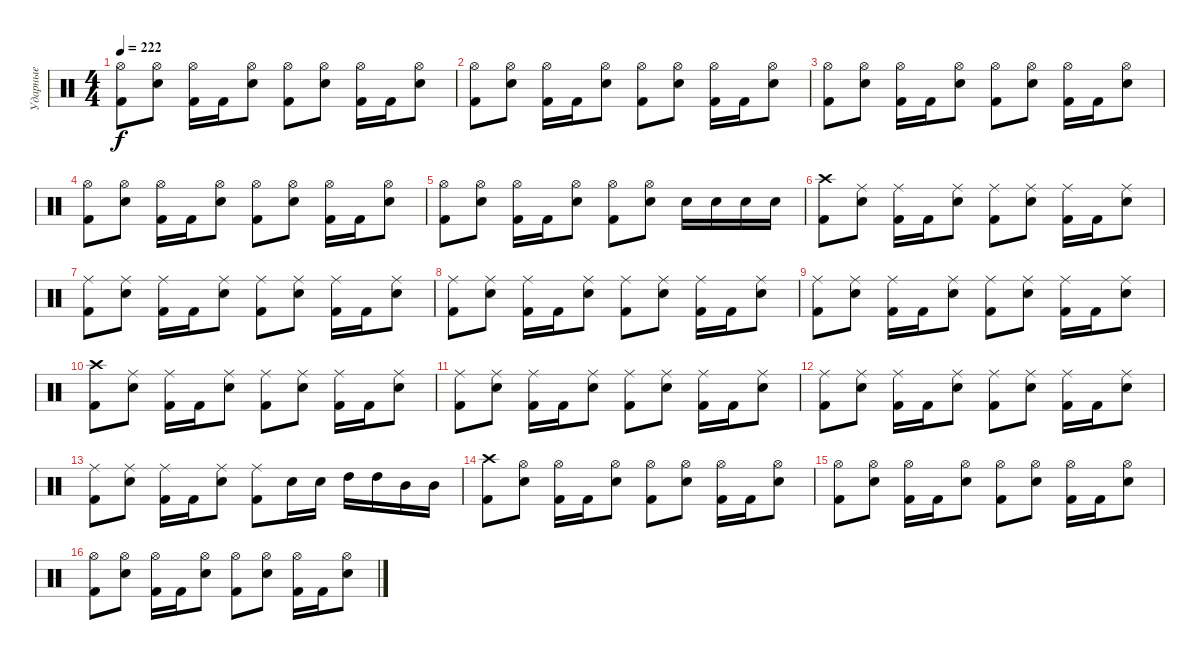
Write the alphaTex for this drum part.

\track ("Ударные" "Ударные") {instrument percussion}
\staff {score}
\articulation defaults
\ts (4 4)
\tempo 222
\clef neutral
\ks c
("Hi-Hat (open)" "Kick (hit) 2").8{dy f} ("Hi-Hat (open)" "Electric Snare (hit)").8 ("Hi-Hat (open)" "Kick (hit) 2").16 "Kick (hit) 2".16 ("Hi-Hat (open)" "Electric Snare (hit)").8 ("Hi-Hat (open)" "Kick (hit) 2").8 ("Hi-Hat (open)" "Electric Snare (hit)").8 ("Hi-Hat (open)" "Kick (hit) 2").16 "Kick (hit) 2".16 ("Hi-Hat (open)" "Electric Snare (hit)").8 |
("Hi-Hat (open)" "Kick (hit) 2").8 ("Hi-Hat (open)" "Electric Snare (hit)").8 ("Hi-Hat (open)" "Kick (hit) 2").16 "Kick (hit) 2".16 ("Hi-Hat (open)" "Electric Snare (hit)").8 ("Hi-Hat (open)" "Kick (hit) 2").8 ("Hi-Hat (open)" "Electric Snare (hit)").8 ("Hi-Hat (open)" "Kick (hit) 2").16 "Kick (hit) 2".16 ("Hi-Hat (open)" "Electric Snare (hit)").8 |
("Hi-Hat (open)" "Kick (hit) 2").8 ("Hi-Hat (open)" "Electric Snare (hit)").8 ("Hi-Hat (open)" "Kick (hit) 2").16 "Kick (hit) 2".16 ("Hi-Hat (open)" "Electric Snare (hit)").8 ("Hi-Hat (open)" "Kick (hit) 2").8 ("Hi-Hat (open)" "Electric Snare (hit)").8 ("Hi-Hat (open)" "Kick (hit) 2").16 "Kick (hit) 2".16 ("Hi-Hat (open)" "Electric Snare (hit)").8 |
("Hi-Hat (open)" "Kick (hit) 2").8 ("Hi-Hat (open)" "Electric Snare (hit)").8 ("Hi-Hat (open)" "Kick (hit) 2").16 "Kick (hit) 2".16 ("Hi-Hat (open)" "Electric Snare (hit)").8 ("Hi-Hat (open)" "Kick (hit) 2").8 ("Hi-Hat (open)" "Electric Snare (hit)").8 ("Hi-Hat (open)" "Kick (hit) 2").16 "Kick (hit) 2".16 ("Hi-Hat (open)" "Electric Snare (hit)").8 |
("Hi-Hat (open)" "Kick (hit) 2").8 ("Hi-Hat (open)" "Electric Snare (hit)").8 ("Hi-Hat (open)" "Kick (hit) 2").16 "Kick (hit) 2".16 ("Hi-Hat (open)" "Electric Snare (hit)").8 ("Hi-Hat (open)" "Kick (hit) 2").8 ("Hi-Hat (open)" "Electric Snare (hit)").8 "Electric Snare (hit)".16 "Electric Snare (hit)".16 "Electric Snare (hit)".16 "Electric Snare (hit)".16 |
("Crash high (hit)" "Kick (hit) 2").8 ("Ride (middle)" "Electric Snare (hit)").8 ("Ride (middle)" "Kick (hit) 2").16 "Kick (hit) 2".16 ("Ride (middle)" "Electric Snare (hit)").8 ("Ride (middle)" "Kick (hit) 2").8 ("Ride (middle)" "Electric Snare (hit)").8 ("Ride (middle)" "Kick (hit) 2").16 "Kick (hit) 2".16 ("Ride (middle)" "Electric Snare (hit)").8 |
("Ride (middle)" "Kick (hit) 2").8 ("Ride (middle)" "Electric Snare (hit)").8 ("Ride (middle)" "Kick (hit) 2").16 "Kick (hit) 2".16 ("Ride (middle)" "Electric Snare (hit)").8 ("Ride (middle)" "Kick (hit) 2").8 ("Ride (middle)" "Electric Snare (hit)").8 ("Ride (middle)" "Kick (hit) 2").16 "Kick (hit) 2".16 ("Ride (middle)" "Electric Snare (hit)").8 |
("Ride (middle)" "Kick (hit) 2").8 ("Ride (middle)" "Electric Snare (hit)").8 ("Ride (middle)" "Kick (hit) 2").16 "Kick (hit) 2".16 ("Ride (middle)" "Electric Snare (hit)").8 ("Ride (middle)" "Kick (hit) 2").8 ("Ride (middle)" "Electric Snare (hit)").8 ("Ride (middle)" "Kick (hit) 2").16 "Kick (hit) 2".16 ("Ride (middle)" "Electric Snare (hit)").8 |
("Ride (middle)" "Kick (hit) 2").8 ("Ride (middle)" "Electric Snare (hit)").8 ("Ride (middle)" "Kick (hit) 2").16 "Kick (hit) 2".16 ("Ride (middle)" "Electric Snare (hit)").8 ("Ride (middle)" "Kick (hit) 2").8 ("Ride (middle)" "Electric Snare (hit)").8 ("Ride (middle)" "Kick (hit) 2").16 "Kick (hit) 2".16 ("Ride (middle)" "Electric Snare (hit)").8 |
("Crash high (hit)" "Kick (hit) 2").8 ("Ride (middle)" "Electric Snare (hit)").8 ("Ride (middle)" "Kick (hit) 2").16 "Kick (hit) 2".16 ("Ride (middle)" "Electric Snare (hit)").8 ("Ride (middle)" "Kick (hit) 2").8 ("Ride (middle)" "Electric Snare (hit)").8 ("Ride (middle)" "Kick (hit) 2").16 "Kick (hit) 2".16 ("Ride (middle)" "Electric Snare (hit)").8 |
("Ride (middle)" "Kick (hit) 2").8 ("Ride (middle)" "Electric Snare (hit)").8 ("Ride (middle)" "Kick (hit) 2").16 "Kick (hit) 2".16 ("Ride (middle)" "Electric Snare (hit)").8 ("Ride (middle)" "Kick (hit) 2").8 ("Ride (middle)" "Electric Snare (hit)").8 ("Ride (middle)" "Kick (hit) 2").16 "Kick (hit) 2".16 ("Ride (middle)" "Electric Snare (hit)").8 |
("Ride (middle)" "Kick (hit) 2").8 ("Ride (middle)" "Electric Snare (hit)").8 ("Ride (middle)" "Kick (hit) 2").16 "Kick (hit) 2".16 ("Ride (middle)" "Electric Snare (hit)").8 ("Ride (middle)" "Kick (hit) 2").8 ("Ride (middle)" "Electric Snare (hit)").8 ("Ride (middle)" "Kick (hit) 2").16 "Kick (hit) 2".16 ("Ride (middle)" "Electric Snare (hit)").8 |
("Ride (middle)" "Kick (hit) 2").8 ("Ride (middle)" "Electric Snare (hit)").8 ("Ride (middle)" "Kick (hit) 2").16 "Kick (hit) 2".16 ("Ride (middle)" "Electric Snare (hit)").8 ("Ride (middle)" "Kick (hit) 2").8 "Electric Snare (hit)".16 "Electric Snare (hit)".16 "High Tom (hit)".16 "High Tom (hit)".16 "Mid Tom (hit)".16 "Mid Tom (hit)".16 |
("Crash high (hit)" "Kick (hit) 2").8 ("Hi-Hat (open)" "Electric Snare (hit)").8 ("Hi-Hat (open)" "Kick (hit) 2").16 "Kick (hit) 2".16 ("Hi-Hat (open)" "Electric Snare (hit)").8 ("Hi-Hat (open)" "Kick (hit) 2").8 ("Hi-Hat (open)" "Electric Snare (hit)").8 ("Hi-Hat (open)" "Kick (hit) 2").16 "Kick (hit) 2".16 ("Hi-Hat (open)" "Electric Snare (hit)").8 |
("Hi-Hat (open)" "Kick (hit) 2").8 ("Hi-Hat (open)" "Electric Snare (hit)").8 ("Hi-Hat (open)" "Kick (hit) 2").16 "Kick (hit) 2".16 ("Hi-Hat (open)" "Electric Snare (hit)").8 ("Hi-Hat (open)" "Kick (hit) 2").8 ("Hi-Hat (open)" "Electric Snare (hit)").8 ("Hi-Hat (open)" "Kick (hit) 2").16 "Kick (hit) 2".16 ("Hi-Hat (open)" "Electric Snare (hit)").8 |
("Hi-Hat (open)" "Kick (hit) 2").8 ("Hi-Hat (open)" "Electric Snare (hit)").8 ("Hi-Hat (open)" "Kick (hit) 2").16 "Kick (hit) 2".16 ("Hi-Hat (open)" "Electric Snare (hit)").8 ("Hi-Hat (open)" "Kick (hit) 2").8 ("Hi-Hat (open)" "Electric Snare (hit)").8 ("Hi-Hat (open)" "Kick (hit) 2").16 "Kick (hit) 2".16 ("Hi-Hat (open)" "Electric Snare (hit)").8
